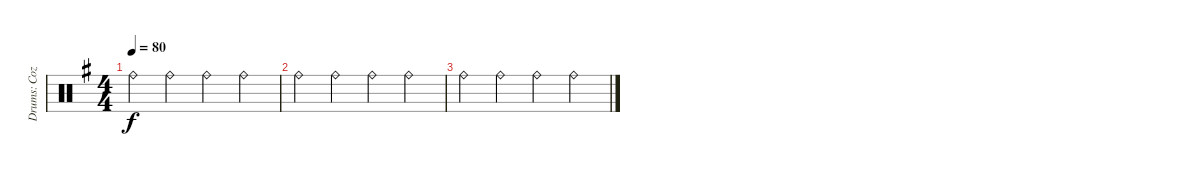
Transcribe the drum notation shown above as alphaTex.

\track ("Drums: Cozy" "Drums: Coz") {instrument percussion}
\staff {score}
\articulation defaults
\ts (4 4)
\tempo 80
\clef neutral
\ks g "Ride (bell)".4{dy f} "Ride (bell)".4 "Ride (bell)".4 "Ride (bell)".4
|
"Ride (bell)".4 "Ride (bell)".4 "Ride (bell)".4 "Ride (bell)".4 |
"Ride (bell)".4 "Ride (bell)".4 "Ride (bell)".4 "Ride (bell)".4
